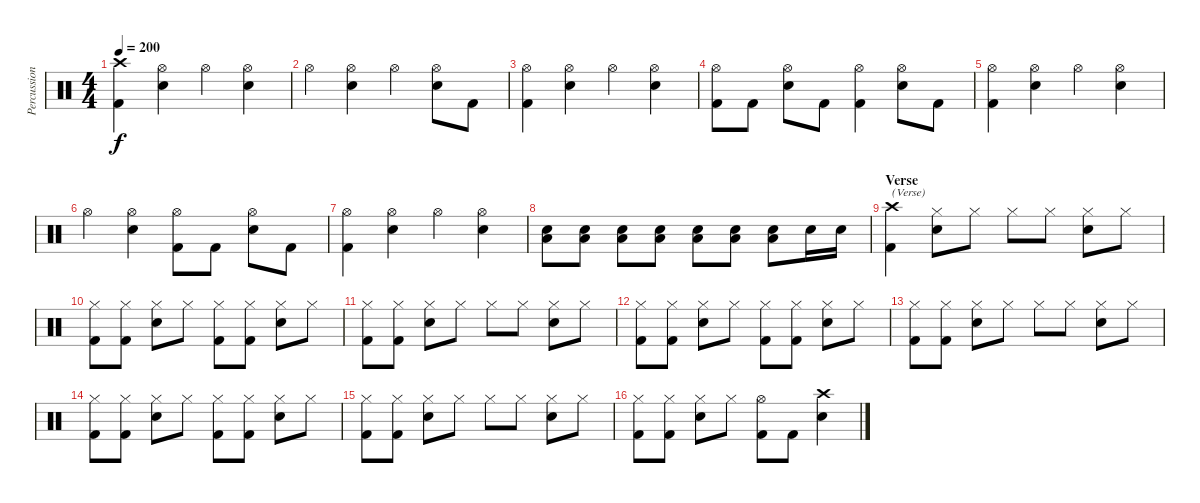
\track ("Percussion" "Percussion") {instrument percussion}
\staff {score}
\articulation defaults
\ts (4 4)
\tempo 200
\clef neutral
\ks c
("Crash high (hit)" "Kick (hit) 2").4{dy f} ("Hi-Hat (open)" "Electric Snare (hit)").4 "Hi-Hat (open)".4 ("Hi-Hat (open)" "Electric Snare (hit)").4 |
"Hi-Hat (open)".4 ("Hi-Hat (open)" "Electric Snare (hit)").4 "Hi-Hat (open)".4 ("Hi-Hat (open)" "Electric Snare (hit)").8 "Kick (hit) 2".8 |
("Hi-Hat (open)" "Kick (hit) 2").4 ("Hi-Hat (open)" "Electric Snare (hit)").4 "Hi-Hat (open)".4 ("Hi-Hat (open)" "Electric Snare (hit)").4 |
("Hi-Hat (open)" "Kick (hit) 2").8 "Kick (hit) 2".8 ("Hi-Hat (open)" "Electric Snare (hit)").8 "Kick (hit) 2".8 ("Hi-Hat (open)" "Kick (hit) 2").4 ("Hi-Hat (open)" "Electric Snare (hit)").8 "Kick (hit) 2".8 |
("Hi-Hat (open)" "Kick (hit) 2").4 ("Hi-Hat (open)" "Electric Snare (hit)").4 "Hi-Hat (open)".4 ("Hi-Hat (open)" "Electric Snare (hit)").4 |
"Hi-Hat (open)".4 ("Hi-Hat (open)" "Electric Snare (hit)").4 ("Hi-Hat (open)" "Kick (hit) 2").8 "Kick (hit) 2".8 ("Hi-Hat (open)" "Electric Snare (hit)").8 "Kick (hit) 2".8 |
("Hi-Hat (open)" "Kick (hit) 2").4 ("Hi-Hat (open)" "Electric Snare (hit)").4 "Hi-Hat (open)".4 ("Hi-Hat (open)" "Electric Snare (hit)").4 |
("Electric Snare (hit)" "Low Floor Tom (hit)").8 ("Electric Snare (hit)" "Low Floor Tom (hit)").8 ("Electric Snare (hit)" "Low Floor Tom (hit)").8 ("Electric Snare (hit)" "Low Floor Tom (hit)").8 ("Electric Snare (hit)" "Low Floor Tom (hit)").8 ("Electric Snare (hit)" "Low Floor Tom (hit)").8 ("Electric Snare (hit)" "Low Floor Tom (hit)").8 "Electric Snare (hit)".16 "Electric Snare (hit)".16 |
\section ("" "Verse")
("Crash high (hit)" "Kick (hit) 2").4{txt "(Verse)"} ("Hi-Hat (closed)" "Electric Snare (hit)").8 "Hi-Hat (closed)".8 "Hi-Hat (closed)".8 "Hi-Hat (closed)".8 ("Hi-Hat (closed)" "Electric Snare (hit)").8 "Hi-Hat (closed)".8 |
("Hi-Hat (closed)" "Kick (hit) 2").8 ("Hi-Hat (closed)" "Kick (hit) 2").8 ("Hi-Hat (closed)" "Electric Snare (hit)").8 "Hi-Hat (closed)".8 ("Hi-Hat (closed)" "Kick (hit) 2").8 ("Hi-Hat (closed)" "Kick (hit) 2").8 ("Hi-Hat (closed)" "Electric Snare (hit)").8 "Hi-Hat (closed)".8 |
("Hi-Hat (closed)" "Kick (hit) 2").8 ("Hi-Hat (closed)" "Kick (hit) 2").8 ("Hi-Hat (closed)" "Electric Snare (hit)").8 "Hi-Hat (closed)".8 "Hi-Hat (closed)".8 "Hi-Hat (closed)".8 ("Hi-Hat (closed)" "Electric Snare (hit)").8 "Hi-Hat (closed)".8 |
("Hi-Hat (closed)" "Kick (hit) 2").8 ("Hi-Hat (closed)" "Kick (hit) 2").8 ("Hi-Hat (closed)" "Electric Snare (hit)").8 "Hi-Hat (closed)".8 ("Hi-Hat (closed)" "Kick (hit) 2").8 ("Hi-Hat (closed)" "Kick (hit) 2").8 ("Hi-Hat (closed)" "Electric Snare (hit)").8 "Hi-Hat (closed)".8 |
("Hi-Hat (closed)" "Kick (hit) 2").8 ("Hi-Hat (closed)" "Kick (hit) 2").8 ("Hi-Hat (closed)" "Electric Snare (hit)").8 "Hi-Hat (closed)".8 "Hi-Hat (closed)".8 "Hi-Hat (closed)".8 ("Hi-Hat (closed)" "Electric Snare (hit)").8 "Hi-Hat (closed)".8 |
("Hi-Hat (closed)" "Kick (hit) 2").8 ("Hi-Hat (closed)" "Kick (hit) 2").8 ("Hi-Hat (closed)" "Electric Snare (hit)").8 "Hi-Hat (closed)".8 ("Hi-Hat (closed)" "Kick (hit) 2").8 ("Hi-Hat (closed)" "Kick (hit) 2").8 ("Hi-Hat (closed)" "Electric Snare (hit)").8 "Hi-Hat (closed)".8 |
("Hi-Hat (closed)" "Kick (hit) 2").8 ("Hi-Hat (closed)" "Kick (hit) 2").8 ("Hi-Hat (closed)" "Electric Snare (hit)").8 "Hi-Hat (closed)".8 "Hi-Hat (closed)".8 "Hi-Hat (closed)".8 ("Hi-Hat (closed)" "Electric Snare (hit)").8 "Hi-Hat (closed)".8 |
("Hi-Hat (closed)" "Kick (hit) 2").8 ("Hi-Hat (closed)" "Kick (hit) 2").8 ("Hi-Hat (closed)" "Electric Snare (hit)").8 "Hi-Hat (closed)".8 ("Hi-Hat (open)" "Kick (hit) 2").8 "Kick (hit) 2".8 ("Crash high (hit)" "Electric Snare (hit)").4
